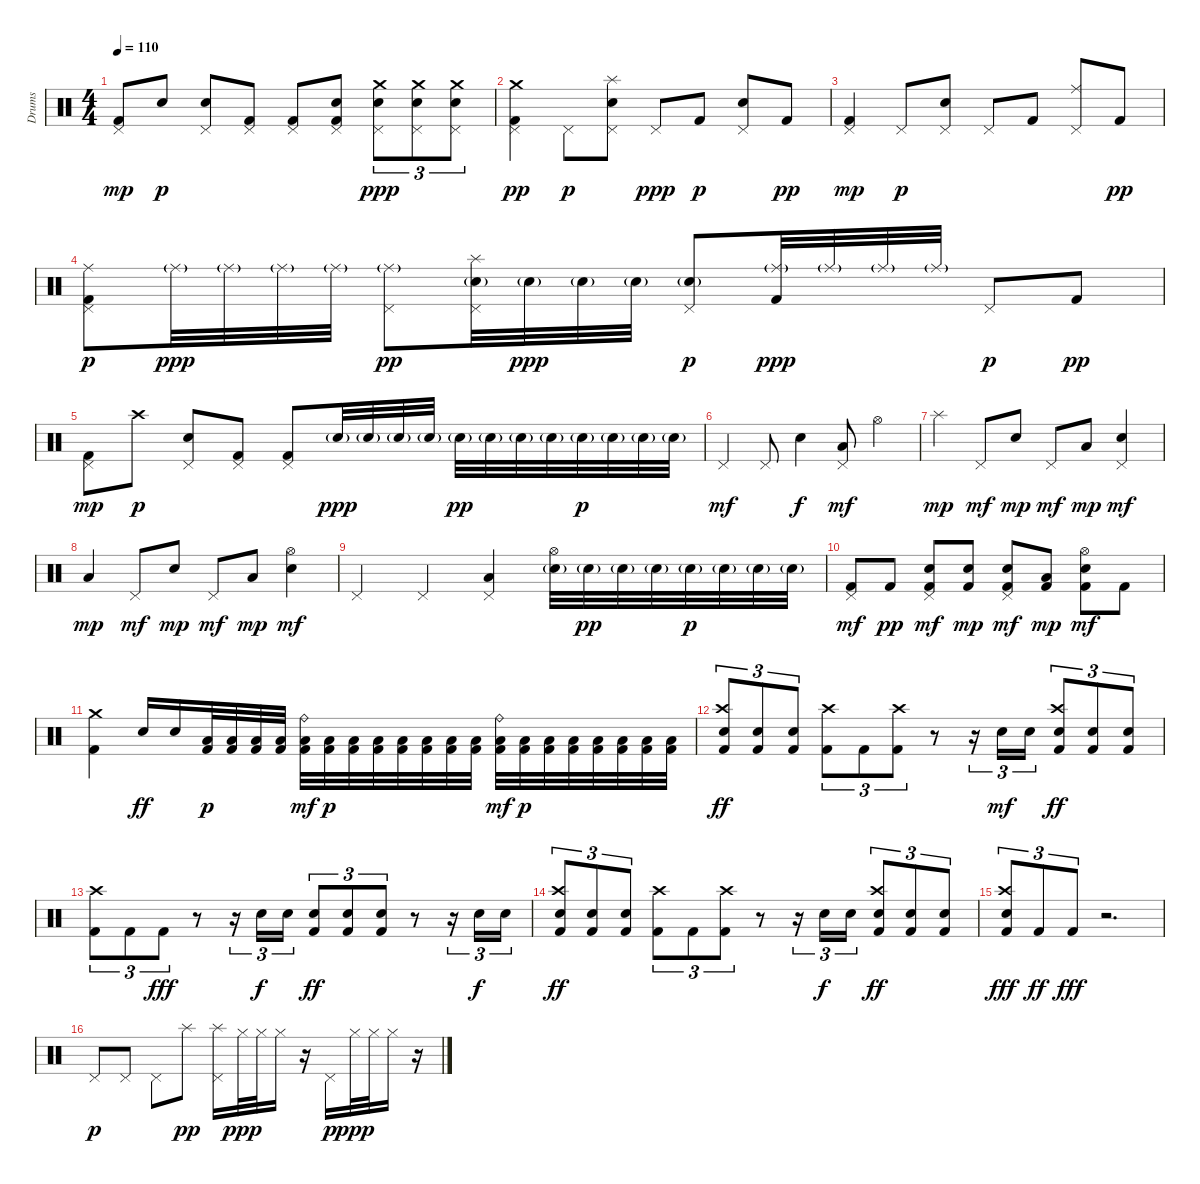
\track ("Drums" "Drums") {instrument percussion}
\staff {score}
\articulation defaults
\ts (4 4)
\tempo 110
\clef neutral
\ks c
("Kick (hit) 2" "Pedal Hi-Hat (hit)").8{dy mp} "Snare (hit) 2".8{dy p} ("Snare (hit) 2" "Pedal Hi-Hat (hit)").8 ("Kick (hit) 2" "Pedal Hi-Hat (hit)").8 ("Kick (hit) 2" "Pedal Hi-Hat (hit)").8 ("Kick (hit) 2" "Snare (hit) 2" "Pedal Hi-Hat (hit)").8 ("Snare (hit) 2" "Pedal Hi-Hat (hit)" "Crash medium (hit)").8{tu (3 2) dy ppp} ("Snare (hit) 2" "Pedal Hi-Hat (hit)" "Crash medium (hit)").8{tu (3 2)} ("Snare (hit) 2" "Pedal Hi-Hat (hit)" "Crash medium (hit)").8{tu (3 2)} |
("Kick (hit) 2" "Pedal Hi-Hat (hit)" "Crash medium (hit)").4{dy pp} "Pedal Hi-Hat (hit)".8{dy p} ("Snare (hit) 2" "Pedal Hi-Hat (hit)" "Splash (hit)").8 "Pedal Hi-Hat (hit)".8{dy ppp} "Kick (hit) 2".8{dy p} ("Snare (hit) 2" "Pedal Hi-Hat (hit)").8 "Kick (hit) 2".8{dy pp} |
("Kick (hit) 2" "Pedal Hi-Hat (hit)").4{dy mp} "Pedal Hi-Hat (hit)".8{dy p} ("Snare (hit) 2" "Pedal Hi-Hat (hit)").8 "Pedal Hi-Hat (hit)".8 "Kick (hit) 2".8 ("Pedal Hi-Hat (hit)" "Ride (middle)").8 "Kick (hit) 2".8{dy pp} |
("Kick (hit) 2" "Pedal Hi-Hat (hit)" "Ride (middle)").8{dy p} "Ride (middle)"{g}.32{dy ppp} "Ride (middle)"{g}.32 "Ride (middle)"{g}.32 "Ride (middle)"{g}.32 ("Pedal Hi-Hat (hit)" "Ride (middle)"{g}).8{dy pp} ("Snare (hit) 2"{g} "Pedal Hi-Hat (hit)" "Splash (hit)").32 "Snare (hit) 2"{g}.32{dy ppp} "Snare (hit) 2"{g}.32 "Snare (hit) 2"{g}.32 ("Snare (hit) 2"{g} "Pedal Hi-Hat (hit)").8{dy p} ("Kick (hit) 2" "Ride (middle)"{g}).32{dy ppp} "Ride (middle)"{g}.32 "Ride (middle)"{g}.32 "Ride (middle)"{g}.32 "Pedal Hi-Hat (hit)".8{dy p} "Kick (hit) 2".8{dy pp} |
("Kick (hit) 2" "Pedal Hi-Hat (hit)").8{dy mp} "Crash high (hit)".8{dy p} ("Snare (hit) 2" "Pedal Hi-Hat (hit)").8 ("Kick (hit) 2" "Pedal Hi-Hat (hit)").8 ("Kick (hit) 2" "Pedal Hi-Hat (hit)").8 "Snare (hit) 2"{g}.32{dy ppp} "Snare (hit) 2"{g}.32 "Snare (hit) 2"{g}.32 "Snare (hit) 2"{g}.32 "Snare (hit) 2"{g}.32{dy pp} "Snare (hit) 2"{g}.32 "Snare (hit) 2"{g}.32 "Snare (hit) 2"{g}.32 "Snare (hit) 2"{g}.32{dy p} "Snare (hit) 2"{g}.32 "Snare (hit) 2"{g}.32 "Snare (hit) 2"{g}.32 |
"Pedal Hi-Hat (hit)".4{dy mf} "Pedal Hi-Hat (hit)".8 "Snare (hit) 2".4{dy f} ("Low Tom (hit)" "Pedal Hi-Hat (hit)").8{dy mf} "Hi-Hat (open)".4 |
"Splash (hit)".4{dy mp} "Pedal Hi-Hat (hit)".8{dy mf} "Snare (hit) 2".8{dy mp} "Pedal Hi-Hat (hit)".8{dy mf} "Low Tom (hit)".8{dy mp} ("Snare (hit) 2" "Pedal Hi-Hat (hit)").4{dy mf} |
"Low Tom (hit)".4{dy mp} "Pedal Hi-Hat (hit)".8{dy mf} "Snare (hit) 2".8{dy mp} "Pedal Hi-Hat (hit)".8{dy mf} "Low Tom (hit)".8{dy mp} ("Snare (hit) 2" "Hi-Hat (open)").4{dy mf} |
"Pedal Hi-Hat (hit)".4 "Pedal Hi-Hat (hit)".4 ("Low Tom (hit)" "Pedal Hi-Hat (hit)").4 ("Snare (hit) 2"{g} "Hi-Hat (open)").32 "Snare (hit) 2"{g}.32{dy pp} "Snare (hit) 2"{g}.32 "Snare (hit) 2"{g}.32 "Snare (hit) 2"{g}.32{dy p} "Snare (hit) 2"{g}.32 "Snare (hit) 2"{g}.32 "Snare (hit) 2"{g}.32 |
("Kick (hit) 2" "Pedal Hi-Hat (hit)").8{dy mf} "Kick (hit) 2".8{dy pp} ("Kick (hit) 2" "Snare (hit) 2" "Pedal Hi-Hat (hit)").8{dy mf} ("Kick (hit) 2" "Snare (hit) 2").8{dy mp} ("Kick (hit) 2" "Snare (hit) 2" "Pedal Hi-Hat (hit)").8{dy mf} ("Kick (hit) 2" "Low Tom (hit)").8{dy mp} ("Kick (hit) 2" "Snare (hit) 2" "Hi-Hat (open)").8{dy mf} "Kick (hit) 2".8 |
("Kick (hit) 2" "Crash medium (hit)").4 "Snare (hit) 2".16{dy ff} "Snare (hit) 2".16 ("Kick (hit) 2" "Low Tom (hit)").32{dy p} ("Kick (hit) 2" "Low Tom (hit)").32 ("Kick (hit) 2" "Low Tom (hit)").32 ("Kick (hit) 2" "Low Tom (hit)").32 ("Kick (hit) 2" "Low Tom (hit)" "Ride (bell)").32{dy mf} ("Kick (hit) 2" "Low Tom (hit)").32{dy p} ("Kick (hit) 2" "Low Tom (hit)").32 ("Kick (hit) 2" "Low Tom (hit)").32 ("Kick (hit) 2" "Low Tom (hit)").32 ("Kick (hit) 2" "Low Tom (hit)").32 ("Kick (hit) 2" "Low Tom (hit)").32 ("Kick (hit) 2" "Low Tom (hit)").32 ("Kick (hit) 2" "Low Tom (hit)" "Ride (bell)").32{dy mf} ("Kick (hit) 2" "Low Tom (hit)").32{dy p} ("Kick (hit) 2" "Low Tom (hit)").32 ("Kick (hit) 2" "Low Tom (hit)").32 ("Kick (hit) 2" "Low Tom (hit)").32 ("Kick (hit) 2" "Low Tom (hit)").32 ("Kick (hit) 2" "Low Tom (hit)").32 ("Kick (hit) 2" "Low Tom (hit)").32 |
("Kick (hit) 2" "Electric Snare (hit)" "Crash high (hit)").8{tu (3 2) dy ff} ("Kick (hit) 2" "Electric Snare (hit)").8{tu (3 2)} ("Kick (hit) 2" "Electric Snare (hit)").8{tu (3 2)} ("Kick (hit) 2" "Crash high (hit)").8{tu (3 2)} "Kick (hit) 2".8{tu (3 2)} ("Kick (hit) 2" "Crash high (hit)").8{tu (3 2)} r.8 r.16{tu (3 2)} "Electric Snare (hit)".16{tu (3 2) dy mf} "Electric Snare (hit)".16{tu (3 2)} ("Kick (hit) 2" "Electric Snare (hit)" "Crash high (hit)").8{tu (3 2) dy ff} ("Kick (hit) 2" "Electric Snare (hit)").8{tu (3 2)} ("Kick (hit) 2" "Electric Snare (hit)").8{tu (3 2)} |
("Kick (hit) 2" "Crash high (hit)").8{tu (3 2)} "Kick (hit) 2".8{tu (3 2)} "Kick (hit) 2".8{tu (3 2) dy fff} r.8 r.16{tu (3 2)} "Electric Snare (hit)".16{tu (3 2) dy f} "Electric Snare (hit)".16{tu (3 2)} ("Kick (hit) 2" "Electric Snare (hit)").8{tu (3 2) dy ff} ("Kick (hit) 2" "Electric Snare (hit)").8{tu (3 2)} ("Kick (hit) 2" "Electric Snare (hit)").8{tu (3 2)} r.8 r.16{tu (3 2)} "Electric Snare (hit)".16{tu (3 2) dy f} "Electric Snare (hit)".16{tu (3 2)} |
("Kick (hit) 2" "Electric Snare (hit)" "Crash high (hit)").8{tu (3 2) dy ff} ("Kick (hit) 2" "Electric Snare (hit)").8{tu (3 2)} ("Kick (hit) 2" "Electric Snare (hit)").8{tu (3 2)} ("Kick (hit) 2" "Crash high (hit)").8{tu (3 2)} "Kick (hit) 2".8{tu (3 2)} ("Kick (hit) 2" "Crash high (hit)").8{tu (3 2)} r.8 r.16{tu (3 2)} "Electric Snare (hit)".16{tu (3 2) dy f} "Electric Snare (hit)".16{tu (3 2)} ("Kick (hit) 2" "Electric Snare (hit)" "Crash high (hit)").8{tu (3 2) dy ff} ("Kick (hit) 2" "Electric Snare (hit)").8{tu (3 2)} ("Kick (hit) 2" "Electric Snare (hit)").8{tu (3 2)} |
("Kick (hit) 2" "Electric Snare (hit)" "Crash high (hit)").8{tu (3 2) dy fff} "Kick (hit) 2".8{tu (3 2) dy ff} "Kick (hit) 2".8{tu (3 2) dy fff} r.2{d} |
"Pedal Hi-Hat (hit)".8{dy p} "Pedal Hi-Hat (hit)".8 "Pedal Hi-Hat (hit)".8 "Splash (hit)".8{dy pp} ("Pedal Hi-Hat (hit)" "Splash (hit)").16 "Hi-Hat (closed)".32{dy ppp} "Hi-Hat (closed)".32 "Hi-Hat (closed)".16 r.16 "Pedal Hi-Hat (hit)".16{dy p} "Hi-Hat (closed)".32{dy ppp} "Hi-Hat (closed)".32 "Hi-Hat (closed)".16 r.16
